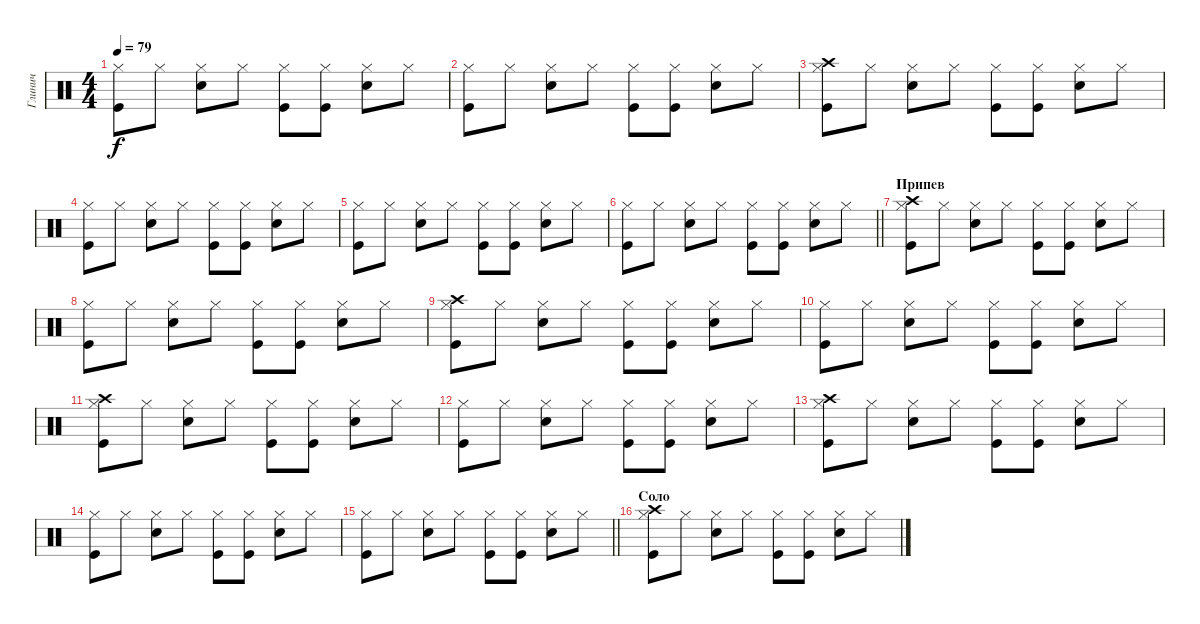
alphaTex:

\track ("Глинич" "Глинич") {instrument percussion}
\staff {score}
\articulation defaults
\ts (4 4)
\tempo 79
\clef neutral
\ks c
("Hi-Hat (closed)" "Kick (hit)").8{dy f} "Hi-Hat (closed)".8 ("Hi-Hat (closed)" "Snare (hit) 2").8 "Hi-Hat (closed)".8 ("Hi-Hat (closed)" "Kick (hit)").8 ("Hi-Hat (closed)" "Kick (hit)").8 ("Hi-Hat (closed)" "Snare (hit) 2").8 "Hi-Hat (closed)".8 |
("Hi-Hat (closed)" "Kick (hit)").8 "Hi-Hat (closed)".8 ("Hi-Hat (closed)" "Snare (hit) 2").8 "Hi-Hat (closed)".8 ("Hi-Hat (closed)" "Kick (hit)").8 ("Hi-Hat (closed)" "Kick (hit)").8 ("Hi-Hat (closed)" "Snare (hit) 2").8 "Hi-Hat (closed)".8 |
("Hi-Hat (closed)" "Crash high (hit)" "Kick (hit)").8 "Hi-Hat (closed)".8 ("Hi-Hat (closed)" "Snare (hit) 2").8 "Hi-Hat (closed)".8 ("Hi-Hat (closed)" "Kick (hit)").8 ("Hi-Hat (closed)" "Kick (hit)").8 ("Hi-Hat (closed)" "Snare (hit) 2").8 "Hi-Hat (closed)".8 |
("Hi-Hat (closed)" "Kick (hit)").8 "Hi-Hat (closed)".8 ("Hi-Hat (closed)" "Snare (hit) 2").8 "Hi-Hat (closed)".8 ("Hi-Hat (closed)" "Kick (hit)").8 ("Hi-Hat (closed)" "Kick (hit)").8 ("Hi-Hat (closed)" "Snare (hit) 2").8 "Hi-Hat (closed)".8 |
("Hi-Hat (closed)" "Kick (hit)").8 "Hi-Hat (closed)".8 ("Hi-Hat (closed)" "Snare (hit) 2").8 "Hi-Hat (closed)".8 ("Hi-Hat (closed)" "Kick (hit)").8 ("Hi-Hat (closed)" "Kick (hit)").8 ("Hi-Hat (closed)" "Snare (hit) 2").8 "Hi-Hat (closed)".8 |
\barLineRight lightlight
("Hi-Hat (closed)" "Kick (hit)").8 "Hi-Hat (closed)".8 ("Hi-Hat (closed)" "Snare (hit) 2").8 "Hi-Hat (closed)".8 ("Hi-Hat (closed)" "Kick (hit)").8 ("Hi-Hat (closed)" "Kick (hit)").8 ("Hi-Hat (closed)" "Snare (hit) 2").8 "Hi-Hat (closed)".8 |
\section ("" "Припев")
("Hi-Hat (closed)" "Crash high (hit)" "Kick (hit)").8 "Hi-Hat (closed)".8 ("Hi-Hat (closed)" "Snare (hit) 2").8 "Hi-Hat (closed)".8 ("Hi-Hat (closed)" "Kick (hit)").8 ("Hi-Hat (closed)" "Kick (hit)").8 ("Hi-Hat (closed)" "Snare (hit) 2").8 "Hi-Hat (closed)".8 |
("Hi-Hat (closed)" "Kick (hit)").8 "Hi-Hat (closed)".8 ("Hi-Hat (closed)" "Snare (hit) 2").8 "Hi-Hat (closed)".8 ("Hi-Hat (closed)" "Kick (hit)").8 ("Hi-Hat (closed)" "Kick (hit)").8 ("Hi-Hat (closed)" "Snare (hit) 2").8 "Hi-Hat (closed)".8 |
("Hi-Hat (closed)" "Crash high (hit)" "Kick (hit)").8 "Hi-Hat (closed)".8 ("Hi-Hat (closed)" "Snare (hit) 2").8 "Hi-Hat (closed)".8 ("Hi-Hat (closed)" "Kick (hit)").8 ("Hi-Hat (closed)" "Kick (hit)").8 ("Hi-Hat (closed)" "Snare (hit) 2").8 "Hi-Hat (closed)".8 |
("Hi-Hat (closed)" "Kick (hit)").8 "Hi-Hat (closed)".8 ("Hi-Hat (closed)" "Snare (hit) 2").8 "Hi-Hat (closed)".8 ("Hi-Hat (closed)" "Kick (hit)").8 ("Hi-Hat (closed)" "Kick (hit)").8 ("Hi-Hat (closed)" "Snare (hit) 2").8 "Hi-Hat (closed)".8 |
("Hi-Hat (closed)" "Crash high (hit)" "Kick (hit)").8 "Hi-Hat (closed)".8 ("Hi-Hat (closed)" "Snare (hit) 2").8 "Hi-Hat (closed)".8 ("Hi-Hat (closed)" "Kick (hit)").8 ("Hi-Hat (closed)" "Kick (hit)").8 ("Hi-Hat (closed)" "Snare (hit) 2").8 "Hi-Hat (closed)".8 |
("Hi-Hat (closed)" "Kick (hit)").8 "Hi-Hat (closed)".8 ("Hi-Hat (closed)" "Snare (hit) 2").8 "Hi-Hat (closed)".8 ("Hi-Hat (closed)" "Kick (hit)").8 ("Hi-Hat (closed)" "Kick (hit)").8 ("Hi-Hat (closed)" "Snare (hit) 2").8 "Hi-Hat (closed)".8 |
("Hi-Hat (closed)" "Crash high (hit)" "Kick (hit)").8 "Hi-Hat (closed)".8 ("Hi-Hat (closed)" "Snare (hit) 2").8 "Hi-Hat (closed)".8 ("Hi-Hat (closed)" "Kick (hit)").8 ("Hi-Hat (closed)" "Kick (hit)").8 ("Hi-Hat (closed)" "Snare (hit) 2").8 "Hi-Hat (closed)".8 |
("Hi-Hat (closed)" "Kick (hit)").8 "Hi-Hat (closed)".8 ("Hi-Hat (closed)" "Snare (hit) 2").8 "Hi-Hat (closed)".8 ("Hi-Hat (closed)" "Kick (hit)").8 ("Hi-Hat (closed)" "Kick (hit)").8 ("Hi-Hat (closed)" "Snare (hit) 2").8 "Hi-Hat (closed)".8 |
\barLineRight lightlight
("Hi-Hat (closed)" "Kick (hit)").8 "Hi-Hat (closed)".8 ("Hi-Hat (closed)" "Snare (hit) 2").8 "Hi-Hat (closed)".8 ("Hi-Hat (closed)" "Kick (hit)").8 ("Hi-Hat (closed)" "Kick (hit)").8 ("Hi-Hat (closed)" "Snare (hit) 2").8 "Hi-Hat (closed)".8 |
\section ("" "Соло")
("Hi-Hat (closed)" "Crash high (hit)" "Kick (hit)").8 "Hi-Hat (closed)".8 ("Hi-Hat (closed)" "Snare (hit) 2").8 "Hi-Hat (closed)".8 ("Hi-Hat (closed)" "Kick (hit)").8 ("Hi-Hat (closed)" "Kick (hit)").8 ("Hi-Hat (closed)" "Snare (hit) 2").8 "Hi-Hat (closed)".8
